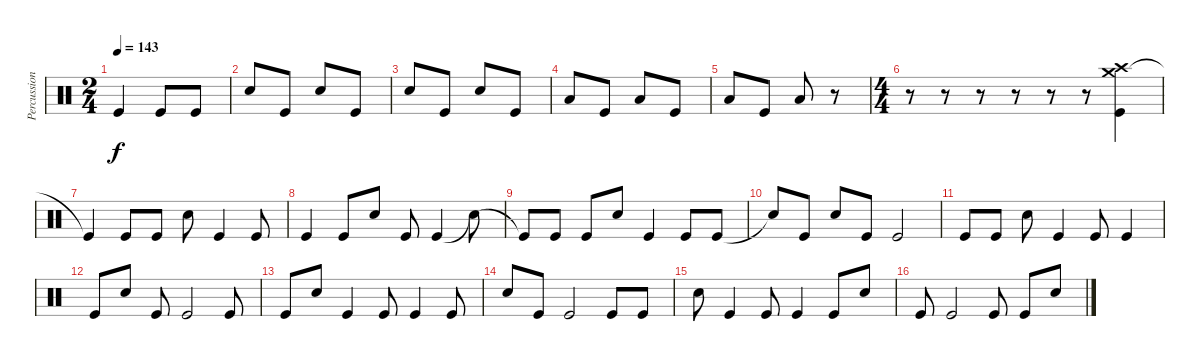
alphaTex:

\track ("Percussion" "Percussion") {instrument percussion}
\staff {score}
\articulation defaults
\ts (2 4)
\tempo 143
\clef neutral
\ks c "Kick (hit)".4{dy f} "Kick (hit)".8 "Kick (hit)".8
|
"Electric Snare (hit)".8 "Kick (hit)".8 "Electric Snare (hit)".8 "Kick (hit)".8 |
"Electric Snare (hit)".8 "Kick (hit)".8 "Electric Snare (hit)".8 "Kick (hit)".8 |
"Low Floor Tom (hit)".8 "Kick (hit)".8 "Low Floor Tom (hit)".8 "Kick (hit)".8 |
"Low Floor Tom (hit)".8 "Kick (hit)".8 "Low Floor Tom (hit)".8 r.8 |
\ts (4 4)
r.8 r.8 r.8 r.8 r.8 r.8 ("Crash medium (hit)" "Crash high (hit)" "Kick (hit)").4 |
"Kick (hit)"{t}.4 "Kick (hit)".8 "Kick (hit)".8 "Electric Snare (hit)".8 "Kick (hit)".4 "Kick (hit)".8 |
"Kick (hit)".4 "Kick (hit)".8 "Electric Snare (hit)".8 "Kick (hit)".8 "Kick (hit)".4 "Snare (hit)"{t}.8 |
"Kick (hit)"{t}.8 "Kick (hit)".8 "Kick (hit)".8 "Electric Snare (hit)".8 "Kick (hit)".4 "Kick (hit)".8 "Kick (hit)".8 |
"Snare (hit)"{t}.8 "Kick (hit)".8 "Electric Snare (hit)".8 "Kick (hit)".8 "Kick (hit)".2 |
"Kick (hit)".8 "Kick (hit)".8 "Electric Snare (hit)".8 "Kick (hit)".4 "Kick (hit)".8 "Kick (hit)".4 |
"Kick (hit)".8 "Electric Snare (hit)".8 "Kick (hit)".8 "Kick (hit)".2 "Kick (hit)".8 |
"Kick (hit)".8 "Electric Snare (hit)".8 "Kick (hit)".4 "Kick (hit)".8 "Kick (hit)".4 "Kick (hit)".8 |
"Electric Snare (hit)".8 "Kick (hit)".8 "Kick (hit)".2 "Kick (hit)".8 "Kick (hit)".8 |
"Electric Snare (hit)".8 "Kick (hit)".4 "Kick (hit)".8 "Kick (hit)".4 "Kick (hit)".8 "Electric Snare (hit)".8 |
"Kick (hit)".8 "Kick (hit)".2 "Kick (hit)".8 "Kick (hit)".8 "Electric Snare (hit)".8
